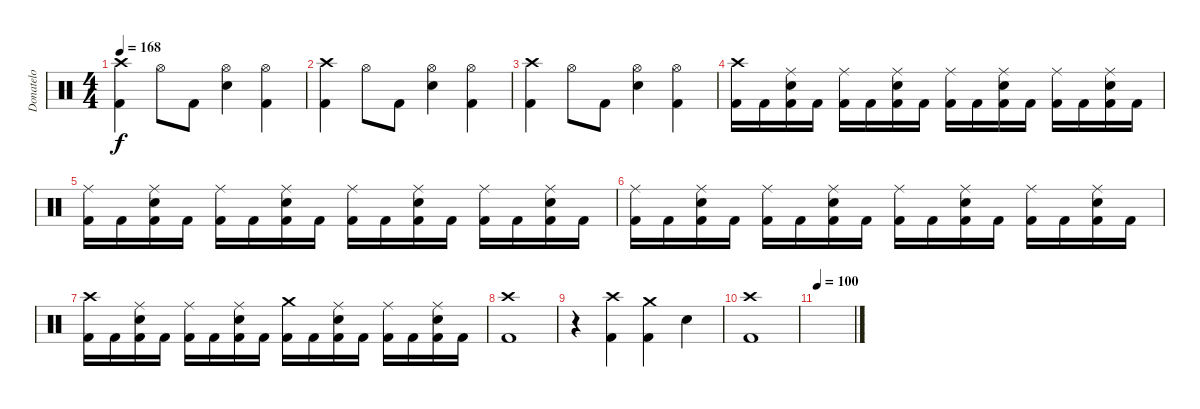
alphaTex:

\track ("Donatelo" "Donatelo") {instrument percussion}
\staff {score}
\articulation defaults
\ts (4 4)
\tempo 168
\clef neutral
\ks c
("Kick (hit) 2" "Crash high (hit)").4{dy f} "Hi-Hat (open)".8 "Kick (hit) 2".8 ("Electric Snare (hit)" "Hi-Hat (open)").4 ("Kick (hit) 2" "Hi-Hat (open)").4 |
("Kick (hit) 2" "Crash high (hit)").4 "Hi-Hat (open)".8 "Kick (hit) 2".8 ("Electric Snare (hit)" "Hi-Hat (open)").4 ("Kick (hit) 2" "Hi-Hat (open)").4 |
("Kick (hit) 2" "Crash high (hit)").4 "Hi-Hat (open)".8 "Kick (hit) 2".8 ("Electric Snare (hit)" "Hi-Hat (open)").4 ("Kick (hit) 2" "Hi-Hat (open)").4 |
("Kick (hit) 2" "Crash high (hit)").16 "Kick (hit) 2".16 ("Kick (hit) 2" "Electric Snare (hit)" "Ride (middle)").16 "Kick (hit) 2".16 ("Kick (hit) 2" "Ride (middle)").16 "Kick (hit) 2".16 ("Kick (hit) 2" "Electric Snare (hit)" "Ride (middle)").16 "Kick (hit) 2".16 ("Kick (hit) 2" "Ride (middle)").16 "Kick (hit) 2".16 ("Kick (hit) 2" "Electric Snare (hit)" "Ride (middle)").16 "Kick (hit) 2".16 ("Kick (hit) 2" "Ride (middle)").16 "Kick (hit) 2".16 ("Kick (hit) 2" "Electric Snare (hit)" "Ride (middle)").16 "Kick (hit) 2".16 |
("Kick (hit) 2" "Ride (middle)").16 "Kick (hit) 2".16 ("Kick (hit) 2" "Electric Snare (hit)" "Ride (middle)").16 "Kick (hit) 2".16 ("Kick (hit) 2" "Ride (middle)").16 "Kick (hit) 2".16 ("Kick (hit) 2" "Electric Snare (hit)" "Ride (middle)").16 "Kick (hit) 2".16 ("Kick (hit) 2" "Ride (middle)").16 "Kick (hit) 2".16 ("Kick (hit) 2" "Electric Snare (hit)" "Ride (middle)").16 "Kick (hit) 2".16 ("Kick (hit) 2" "Ride (middle)").16 "Kick (hit) 2".16 ("Kick (hit) 2" "Electric Snare (hit)" "Ride (middle)").16 "Kick (hit) 2".16 |
("Kick (hit) 2" "Ride (middle)").16 "Kick (hit) 2".16 ("Kick (hit) 2" "Electric Snare (hit)" "Ride (middle)").16 "Kick (hit) 2".16 ("Kick (hit) 2" "Ride (middle)").16 "Kick (hit) 2".16 ("Kick (hit) 2" "Electric Snare (hit)" "Ride (middle)").16 "Kick (hit) 2".16 ("Kick (hit) 2" "Ride (middle)").16 "Kick (hit) 2".16 ("Kick (hit) 2" "Electric Snare (hit)" "Ride (middle)").16 "Kick (hit) 2".16 ("Kick (hit) 2" "Ride (middle)").16 "Kick (hit) 2".16 ("Kick (hit) 2" "Electric Snare (hit)" "Ride (middle)").16 "Kick (hit) 2".16 |
("Kick (hit) 2" "Crash high (hit)").16 "Kick (hit) 2".16 ("Kick (hit) 2" "Electric Snare (hit)" "Ride (middle)").16 "Kick (hit) 2".16 ("Kick (hit) 2" "Ride (middle)").16 "Kick (hit) 2".16 ("Kick (hit) 2" "Electric Snare (hit)" "Ride (middle)").16 "Kick (hit) 2".16 ("Kick (hit) 2" "Crash medium (hit)").16 "Kick (hit) 2".16 ("Kick (hit) 2" "Electric Snare (hit)" "Ride (middle)").16 "Kick (hit) 2".16 ("Kick (hit) 2" "Ride (middle)").16 "Kick (hit) 2".16 ("Kick (hit) 2" "Electric Snare (hit)" "Ride (middle)").16 "Kick (hit) 2".16 |
("Kick (hit) 2" "Crash high (hit)").1 |
r.4 ("Kick (hit) 2" "Crash high (hit)").4 ("Kick (hit) 2" "Crash medium (hit)").4 "Electric Snare (hit)".4 |
("Kick (hit) 2" "Crash high (hit)").1 |
\tempo 100
